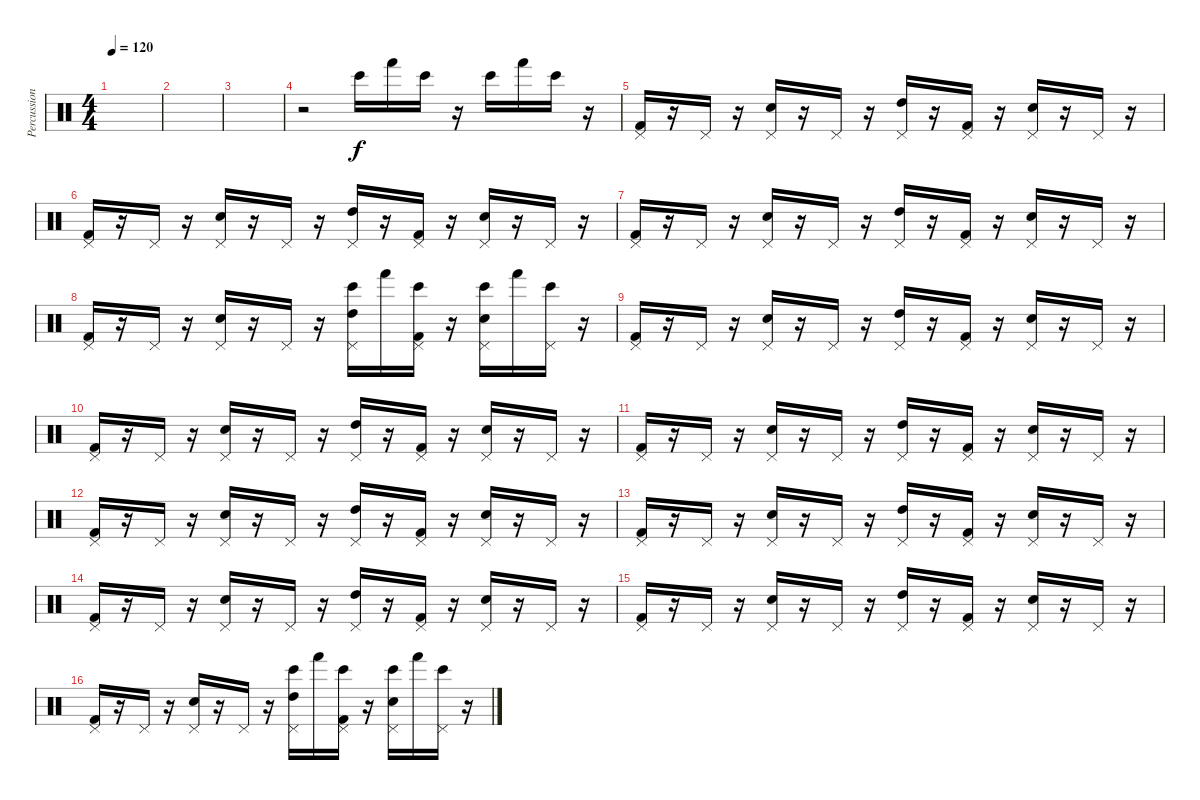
\track ("Percussion" "Percussion") {instrument percussion}
\staff {score}
\articulation defaults
\ts (4 4)
\tempo 120
\clef neutral
\ks c
|
|
|
r.2 "Bongo High (hit)".16 "Hand (hit)".16 "Bongo High (hit)".16 r.16 "Bongo High (hit)".16 "Hand (hit)".16 "Bongo High (hit)".16 r.16 |
("Pedal Hi-Hat (hit)" "Kick (hit) 2").16 r.16 "Pedal Hi-Hat (hit)".16 r.16 ("Pedal Hi-Hat (hit)" "Snare (hit) 2").16 r.16 "Pedal Hi-Hat (hit)".16 r.16 ("Pedal Hi-Hat (hit)" "High Tom (hit)").16 r.16 ("Pedal Hi-Hat (hit)" "Kick (hit) 2").16 r.16 ("Pedal Hi-Hat (hit)" "Snare (hit) 2").16 r.16 "Pedal Hi-Hat (hit)".16 r.16 |
("Pedal Hi-Hat (hit)" "Kick (hit) 2").16 r.16 "Pedal Hi-Hat (hit)".16 r.16 ("Pedal Hi-Hat (hit)" "Snare (hit) 2").16 r.16 "Pedal Hi-Hat (hit)".16 r.16 ("Pedal Hi-Hat (hit)" "High Tom (hit)").16 r.16 ("Pedal Hi-Hat (hit)" "Kick (hit) 2").16 r.16 ("Pedal Hi-Hat (hit)" "Snare (hit) 2").16 r.16 "Pedal Hi-Hat (hit)".16 r.16 |
("Pedal Hi-Hat (hit)" "Kick (hit) 2").16 r.16 "Pedal Hi-Hat (hit)".16 r.16 ("Pedal Hi-Hat (hit)" "Snare (hit) 2").16 r.16 "Pedal Hi-Hat (hit)".16 r.16 ("Pedal Hi-Hat (hit)" "High Tom (hit)").16 r.16 ("Pedal Hi-Hat (hit)" "Kick (hit) 2").16 r.16 ("Pedal Hi-Hat (hit)" "Snare (hit) 2").16 r.16 "Pedal Hi-Hat (hit)".16 r.16 |
("Pedal Hi-Hat (hit)" "Kick (hit) 2").16 r.16 "Pedal Hi-Hat (hit)".16 r.16 ("Pedal Hi-Hat (hit)" "Snare (hit) 2").16 r.16 "Pedal Hi-Hat (hit)".16 r.16 ("Bongo High (hit)" "Pedal Hi-Hat (hit)" "High Tom (hit)").16 "Hand (hit)".16 ("Bongo High (hit)" "Pedal Hi-Hat (hit)" "Kick (hit) 2").16 r.16 ("Bongo High (hit)" "Pedal Hi-Hat (hit)" "Snare (hit) 2").16 "Hand (hit)".16 ("Bongo High (hit)" "Pedal Hi-Hat (hit)").16 r.16 |
("Pedal Hi-Hat (hit)" "Kick (hit) 2").16 r.16 "Pedal Hi-Hat (hit)".16 r.16 ("Pedal Hi-Hat (hit)" "Snare (hit) 2").16 r.16 "Pedal Hi-Hat (hit)".16 r.16 ("Pedal Hi-Hat (hit)" "High Tom (hit)").16 r.16 ("Pedal Hi-Hat (hit)" "Kick (hit) 2").16 r.16 ("Pedal Hi-Hat (hit)" "Snare (hit) 2").16 r.16 "Pedal Hi-Hat (hit)".16 r.16 |
("Pedal Hi-Hat (hit)" "Kick (hit) 2").16 r.16 "Pedal Hi-Hat (hit)".16 r.16 ("Pedal Hi-Hat (hit)" "Snare (hit) 2").16 r.16 "Pedal Hi-Hat (hit)".16 r.16 ("Pedal Hi-Hat (hit)" "High Tom (hit)").16 r.16 ("Pedal Hi-Hat (hit)" "Kick (hit) 2").16 r.16 ("Pedal Hi-Hat (hit)" "Snare (hit) 2").16 r.16 "Pedal Hi-Hat (hit)".16 r.16 |
("Pedal Hi-Hat (hit)" "Kick (hit) 2").16 r.16 "Pedal Hi-Hat (hit)".16 r.16 ("Pedal Hi-Hat (hit)" "Snare (hit) 2").16 r.16 "Pedal Hi-Hat (hit)".16 r.16 ("Pedal Hi-Hat (hit)" "High Tom (hit)").16 r.16 ("Pedal Hi-Hat (hit)" "Kick (hit) 2").16 r.16 ("Pedal Hi-Hat (hit)" "Snare (hit) 2").16 r.16 "Pedal Hi-Hat (hit)".16 r.16 |
("Pedal Hi-Hat (hit)" "Kick (hit) 2").16 r.16 "Pedal Hi-Hat (hit)".16 r.16 ("Pedal Hi-Hat (hit)" "Snare (hit) 2").16 r.16 "Pedal Hi-Hat (hit)".16 r.16 ("Pedal Hi-Hat (hit)" "High Tom (hit)").16 r.16 ("Pedal Hi-Hat (hit)" "Kick (hit) 2").16 r.16 ("Pedal Hi-Hat (hit)" "Snare (hit) 2").16 r.16 "Pedal Hi-Hat (hit)".16 r.16 |
("Pedal Hi-Hat (hit)" "Kick (hit) 2").16 r.16 "Pedal Hi-Hat (hit)".16 r.16 ("Pedal Hi-Hat (hit)" "Snare (hit) 2").16 r.16 "Pedal Hi-Hat (hit)".16 r.16 ("Pedal Hi-Hat (hit)" "High Tom (hit)").16 r.16 ("Pedal Hi-Hat (hit)" "Kick (hit) 2").16 r.16 ("Pedal Hi-Hat (hit)" "Snare (hit) 2").16 r.16 "Pedal Hi-Hat (hit)".16 r.16 |
("Pedal Hi-Hat (hit)" "Kick (hit) 2").16 r.16 "Pedal Hi-Hat (hit)".16 r.16 ("Pedal Hi-Hat (hit)" "Snare (hit) 2").16 r.16 "Pedal Hi-Hat (hit)".16 r.16 ("Pedal Hi-Hat (hit)" "High Tom (hit)").16 r.16 ("Pedal Hi-Hat (hit)" "Kick (hit) 2").16 r.16 ("Pedal Hi-Hat (hit)" "Snare (hit) 2").16 r.16 "Pedal Hi-Hat (hit)".16 r.16 |
("Pedal Hi-Hat (hit)" "Kick (hit) 2").16 r.16 "Pedal Hi-Hat (hit)".16 r.16 ("Pedal Hi-Hat (hit)" "Snare (hit) 2").16 r.16 "Pedal Hi-Hat (hit)".16 r.16 ("Pedal Hi-Hat (hit)" "High Tom (hit)").16 r.16 ("Pedal Hi-Hat (hit)" "Kick (hit) 2").16 r.16 ("Pedal Hi-Hat (hit)" "Snare (hit) 2").16 r.16 "Pedal Hi-Hat (hit)".16 r.16 |
("Pedal Hi-Hat (hit)" "Kick (hit) 2").16 r.16 "Pedal Hi-Hat (hit)".16 r.16 ("Pedal Hi-Hat (hit)" "Snare (hit) 2").16 r.16 "Pedal Hi-Hat (hit)".16 r.16 ("Bongo High (hit)" "Pedal Hi-Hat (hit)" "High Tom (hit)").16 "Hand (hit)".16 ("Bongo High (hit)" "Pedal Hi-Hat (hit)" "Kick (hit) 2").16 r.16 ("Bongo High (hit)" "Pedal Hi-Hat (hit)" "Snare (hit) 2").16 "Hand (hit)".16 ("Bongo High (hit)" "Pedal Hi-Hat (hit)").16 r.16
